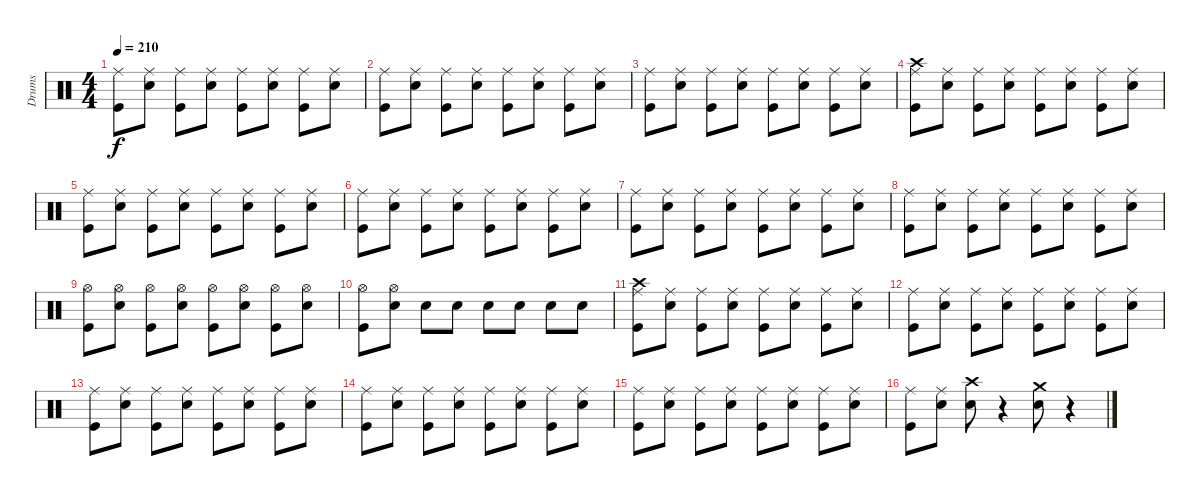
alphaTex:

\track ("Drums" "Drums") {instrument percussion}
\staff {score}
\articulation defaults
\ts (4 4)
\tempo 210
\clef neutral
\ks c
("Ride (middle)" "Kick (hit)").8{dy f} ("Electric Snare (hit)" "Ride (middle)").8 ("Ride (middle)" "Kick (hit)").8 ("Electric Snare (hit)" "Ride (middle)").8 ("Ride (middle)" "Kick (hit)").8 ("Electric Snare (hit)" "Ride (middle)").8 ("Ride (middle)" "Kick (hit)").8 ("Electric Snare (hit)" "Ride (middle)").8 |
("Ride (middle)" "Kick (hit)").8 ("Electric Snare (hit)" "Ride (middle)").8 ("Ride (middle)" "Kick (hit)").8 ("Electric Snare (hit)" "Ride (middle)").8 ("Ride (middle)" "Kick (hit)").8 ("Electric Snare (hit)" "Ride (middle)").8 ("Ride (middle)" "Kick (hit)").8 ("Electric Snare (hit)" "Ride (middle)").8 |
("Ride (middle)" "Kick (hit)").8 ("Electric Snare (hit)" "Ride (middle)").8 ("Ride (middle)" "Kick (hit)").8 ("Electric Snare (hit)" "Ride (middle)").8 ("Ride (middle)" "Kick (hit)").8 ("Electric Snare (hit)" "Ride (middle)").8 ("Ride (middle)" "Kick (hit)").8 ("Electric Snare (hit)" "Ride (middle)").8 |
("Ride (middle)" "Crash high (hit)" "Kick (hit)").8 ("Electric Snare (hit)" "Ride (middle)").8 ("Ride (middle)" "Kick (hit)").8 ("Electric Snare (hit)" "Ride (middle)").8 ("Ride (middle)" "Kick (hit)").8 ("Electric Snare (hit)" "Ride (middle)").8 ("Ride (middle)" "Kick (hit)").8 ("Electric Snare (hit)" "Ride (middle)").8 |
("Ride (middle)" "Kick (hit)").8 ("Electric Snare (hit)" "Ride (middle)").8 ("Ride (middle)" "Kick (hit)").8 ("Electric Snare (hit)" "Ride (middle)").8 ("Ride (middle)" "Kick (hit)").8 ("Electric Snare (hit)" "Ride (middle)").8 ("Ride (middle)" "Kick (hit)").8 ("Electric Snare (hit)" "Ride (middle)").8 |
("Ride (middle)" "Kick (hit)").8 ("Electric Snare (hit)" "Ride (middle)").8 ("Ride (middle)" "Kick (hit)").8 ("Electric Snare (hit)" "Ride (middle)").8 ("Ride (middle)" "Kick (hit)").8 ("Electric Snare (hit)" "Ride (middle)").8 ("Ride (middle)" "Kick (hit)").8 ("Electric Snare (hit)" "Ride (middle)").8 |
("Ride (middle)" "Kick (hit)").8 ("Electric Snare (hit)" "Ride (middle)").8 ("Ride (middle)" "Kick (hit)").8 ("Electric Snare (hit)" "Ride (middle)").8 ("Ride (middle)" "Kick (hit)").8 ("Electric Snare (hit)" "Ride (middle)").8 ("Ride (middle)" "Kick (hit)").8 ("Electric Snare (hit)" "Ride (middle)").8 |
("Ride (middle)" "Kick (hit)").8 ("Electric Snare (hit)" "Ride (middle)").8 ("Ride (middle)" "Kick (hit)").8 ("Electric Snare (hit)" "Ride (middle)").8 ("Ride (middle)" "Kick (hit)").8 ("Electric Snare (hit)" "Ride (middle)").8 ("Ride (middle)" "Kick (hit)").8 ("Electric Snare (hit)" "Ride (middle)").8 |
("Hi-Hat (open)" "Kick (hit)").8 ("Electric Snare (hit)" "Hi-Hat (open)").8 ("Hi-Hat (open)" "Kick (hit)").8 ("Electric Snare (hit)" "Hi-Hat (open)").8 ("Hi-Hat (open)" "Kick (hit)").8 ("Electric Snare (hit)" "Hi-Hat (open)").8 ("Hi-Hat (open)" "Kick (hit)").8 ("Electric Snare (hit)" "Hi-Hat (open)").8 |
("Hi-Hat (open)" "Kick (hit)").8 ("Electric Snare (hit)" "Hi-Hat (open)").8 "Electric Snare (hit)".8 "Electric Snare (hit)".8 "Electric Snare (hit)".8 "Electric Snare (hit)".8 "Electric Snare (hit)".8 "Electric Snare (hit)".8 |
("Ride (middle)" "Crash high (hit)" "Kick (hit)").8 ("Electric Snare (hit)" "Ride (middle)").8 ("Ride (middle)" "Kick (hit)").8 ("Electric Snare (hit)" "Ride (middle)").8 ("Ride (middle)" "Kick (hit)").8 ("Electric Snare (hit)" "Ride (middle)").8 ("Ride (middle)" "Kick (hit)").8 ("Electric Snare (hit)" "Ride (middle)").8 |
("Ride (middle)" "Kick (hit)").8 ("Electric Snare (hit)" "Ride (middle)").8 ("Ride (middle)" "Kick (hit)").8 ("Electric Snare (hit)" "Ride (middle)").8 ("Ride (middle)" "Kick (hit)").8 ("Electric Snare (hit)" "Ride (middle)").8 ("Ride (middle)" "Kick (hit)").8 ("Electric Snare (hit)" "Ride (middle)").8 |
("Ride (middle)" "Kick (hit)").8 ("Electric Snare (hit)" "Ride (middle)").8 ("Ride (middle)" "Kick (hit)").8 ("Electric Snare (hit)" "Ride (middle)").8 ("Ride (middle)" "Kick (hit)").8 ("Electric Snare (hit)" "Ride (middle)").8 ("Ride (middle)" "Kick (hit)").8 ("Electric Snare (hit)" "Ride (middle)").8 |
("Ride (middle)" "Kick (hit)").8 ("Electric Snare (hit)" "Ride (middle)").8 ("Ride (middle)" "Kick (hit)").8 ("Electric Snare (hit)" "Ride (middle)").8 ("Ride (middle)" "Kick (hit)").8 ("Electric Snare (hit)" "Ride (middle)").8 ("Ride (middle)" "Kick (hit)").8 ("Electric Snare (hit)" "Ride (middle)").8 |
("Ride (middle)" "Kick (hit)").8 ("Electric Snare (hit)" "Ride (middle)").8 ("Ride (middle)" "Kick (hit)").8 ("Electric Snare (hit)" "Ride (middle)").8 ("Ride (middle)" "Kick (hit)").8 ("Electric Snare (hit)" "Ride (middle)").8 ("Ride (middle)" "Kick (hit)").8 ("Electric Snare (hit)" "Ride (middle)").8 |
("Ride (middle)" "Kick (hit)").8 ("Electric Snare (hit)" "Ride (middle)").8 ("Electric Snare (hit)" "Crash high (hit)").8 r.4 ("Electric Snare (hit)" "Crash medium (hit)").8 r.4
